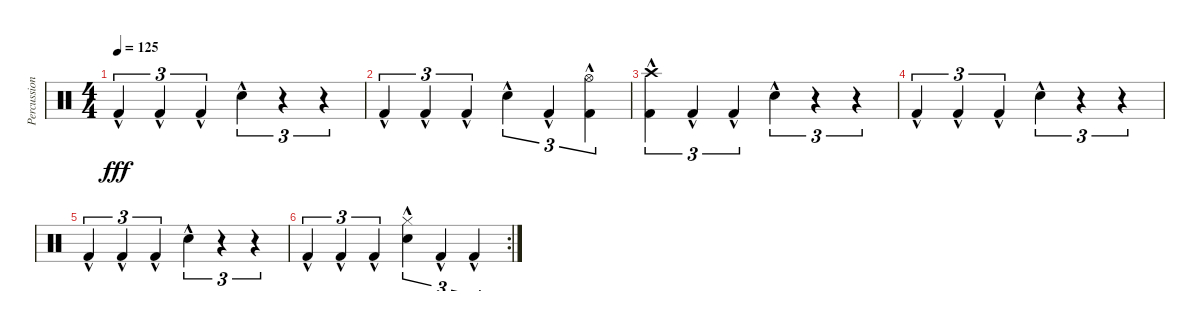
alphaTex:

\track ("Percussion" "Percussion") {instrument percussion}
\staff {score}
\articulation defaults
\ts (4 4)
\tempo 125
\clef neutral
\ks c "Kick (hit) 2"{hac}.4{tu (3 2) dy fff} "Kick (hit) 2"{hac}.4{tu (3 2)} "Kick (hit) 2"{hac}.4{tu (3 2)} "Electric Snare (hit)"{hac}.4{tu (3 2)}
r.4{tu (3 2)} r.4{tu (3 2)} |
"Kick (hit) 2"{hac}.4{tu (3 2)} "Kick (hit) 2"{hac}.4{tu (3 2)} "Kick (hit) 2"{hac}.4{tu (3 2)} "Electric Snare (hit)"{hac}.4{tu (3 2)} "Kick (hit) 2"{hac}.4{tu (3 2)} ("Kick (hit) 2"{hac} "Hi-Hat (open)"{hac}).4{tu (3 2)} |
("Kick (hit) 2"{hac} "Crash high (hit)"{hac}).4{tu (3 2)} "Kick (hit) 2"{hac}.4{tu (3 2)} "Kick (hit) 2"{hac}.4{tu (3 2)} "Electric Snare (hit)"{hac}.4{tu (3 2)} r.4{tu (3 2)} r.4{tu (3 2)} |
"Kick (hit) 2"{hac}.4{tu (3 2)} "Kick (hit) 2"{hac}.4{tu (3 2)} "Kick (hit) 2"{hac}.4{tu (3 2)} "Electric Snare (hit)"{hac}.4{tu (3 2)} r.4{tu (3 2)} r.4{tu (3 2)} |
"Kick (hit) 2"{hac}.4{tu (3 2)} "Kick (hit) 2"{hac}.4{tu (3 2)} "Kick (hit) 2"{hac}.4{tu (3 2)} "Electric Snare (hit)"{hac}.4{tu (3 2)} r.4{tu (3 2)} r.4{tu (3 2)} |
\rc 2 "Kick (hit) 2"{hac}.4{tu (3 2)} "Kick (hit) 2"{hac}.4{tu (3 2)} "Kick (hit) 2"{hac}.4{tu (3 2)}
("Hi-Hat (closed)"{hac} "Electric Snare (hit)"{hac}).4{tu (3 2)} "Kick (hit) 2"{hac}.4{tu (3 2)} "Kick (hit) 2"{hac}.4{tu (3 2)}
